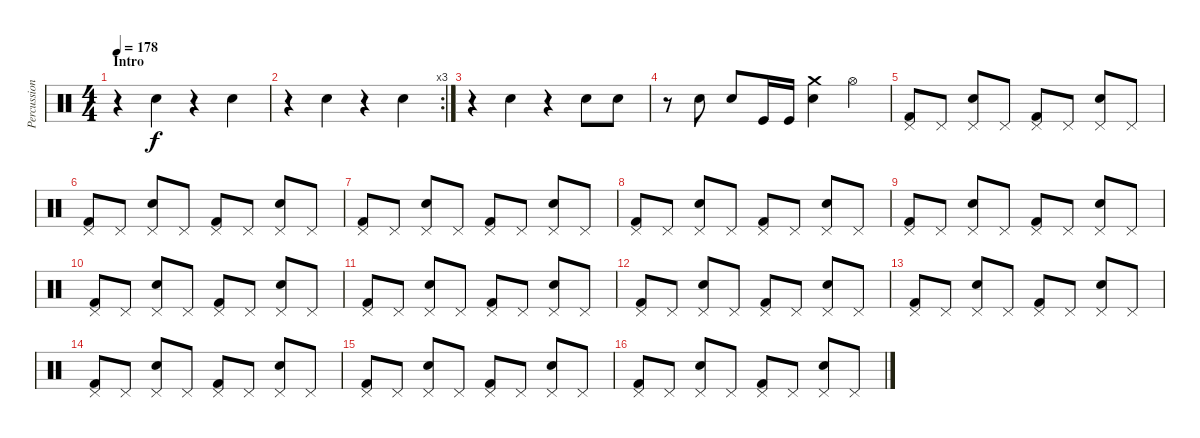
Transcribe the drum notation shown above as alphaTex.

\track ("Percussion" "Percussion") {instrument percussion}
\staff {score}
\articulation defaults
\ts (4 4)
\section ("" "Intro")
\tempo 178
\clef neutral
\ks c
r.4{dy f} "Snare (hit) 2".4 r.4 "Snare (hit) 2".4 |
\rc 3
r.4 "Snare (hit) 2".4 r.4 "Snare (hit) 2".4 |
r.4 "Snare (hit) 2".4 r.4 "Snare (hit) 2".8 "Snare (hit) 2".8 |
r.8 "Snare (hit) 2".8 "Snare (hit) 2".8 "Kick (hit)".16 "Kick (hit)".16 ("Crash medium (hit)" "Snare (hit) 2").4 "Hi-Hat (open)".4 |
("Pedal Hi-Hat (hit)" "Kick (hit) 2").8 "Pedal Hi-Hat (hit)".8 ("Pedal Hi-Hat (hit)" "Snare (hit) 2").8 "Pedal Hi-Hat (hit)".8 ("Pedal Hi-Hat (hit)" "Kick (hit) 2").8 "Pedal Hi-Hat (hit)".8 ("Pedal Hi-Hat (hit)" "Snare (hit) 2").8 "Pedal Hi-Hat (hit)".8 |
("Pedal Hi-Hat (hit)" "Kick (hit) 2").8 "Pedal Hi-Hat (hit)".8 ("Pedal Hi-Hat (hit)" "Snare (hit) 2").8 "Pedal Hi-Hat (hit)".8 ("Pedal Hi-Hat (hit)" "Kick (hit) 2").8 "Pedal Hi-Hat (hit)".8 ("Pedal Hi-Hat (hit)" "Snare (hit) 2").8 "Pedal Hi-Hat (hit)".8 |
("Pedal Hi-Hat (hit)" "Kick (hit) 2").8 "Pedal Hi-Hat (hit)".8 ("Pedal Hi-Hat (hit)" "Snare (hit) 2").8 "Pedal Hi-Hat (hit)".8 ("Pedal Hi-Hat (hit)" "Kick (hit) 2").8 "Pedal Hi-Hat (hit)".8 ("Pedal Hi-Hat (hit)" "Snare (hit) 2").8 "Pedal Hi-Hat (hit)".8 |
("Pedal Hi-Hat (hit)" "Kick (hit) 2").8 "Pedal Hi-Hat (hit)".8 ("Pedal Hi-Hat (hit)" "Snare (hit) 2").8 "Pedal Hi-Hat (hit)".8 ("Pedal Hi-Hat (hit)" "Kick (hit) 2").8 "Pedal Hi-Hat (hit)".8 ("Pedal Hi-Hat (hit)" "Snare (hit) 2").8 "Pedal Hi-Hat (hit)".8 |
("Pedal Hi-Hat (hit)" "Kick (hit) 2").8 "Pedal Hi-Hat (hit)".8 ("Pedal Hi-Hat (hit)" "Snare (hit) 2").8 "Pedal Hi-Hat (hit)".8 ("Pedal Hi-Hat (hit)" "Kick (hit) 2").8 "Pedal Hi-Hat (hit)".8 ("Pedal Hi-Hat (hit)" "Snare (hit) 2").8 "Pedal Hi-Hat (hit)".8 |
("Pedal Hi-Hat (hit)" "Kick (hit) 2").8 "Pedal Hi-Hat (hit)".8 ("Pedal Hi-Hat (hit)" "Snare (hit) 2").8 "Pedal Hi-Hat (hit)".8 ("Pedal Hi-Hat (hit)" "Kick (hit) 2").8 "Pedal Hi-Hat (hit)".8 ("Pedal Hi-Hat (hit)" "Snare (hit) 2").8 "Pedal Hi-Hat (hit)".8 |
("Pedal Hi-Hat (hit)" "Kick (hit) 2").8 "Pedal Hi-Hat (hit)".8 ("Pedal Hi-Hat (hit)" "Snare (hit) 2").8 "Pedal Hi-Hat (hit)".8 ("Pedal Hi-Hat (hit)" "Kick (hit) 2").8 "Pedal Hi-Hat (hit)".8 ("Pedal Hi-Hat (hit)" "Snare (hit) 2").8 "Pedal Hi-Hat (hit)".8 |
("Pedal Hi-Hat (hit)" "Kick (hit) 2").8 "Pedal Hi-Hat (hit)".8 ("Pedal Hi-Hat (hit)" "Snare (hit) 2").8 "Pedal Hi-Hat (hit)".8 ("Pedal Hi-Hat (hit)" "Kick (hit) 2").8 "Pedal Hi-Hat (hit)".8 ("Pedal Hi-Hat (hit)" "Snare (hit) 2").8 "Pedal Hi-Hat (hit)".8 |
("Pedal Hi-Hat (hit)" "Kick (hit) 2").8 "Pedal Hi-Hat (hit)".8 ("Pedal Hi-Hat (hit)" "Snare (hit) 2").8 "Pedal Hi-Hat (hit)".8 ("Pedal Hi-Hat (hit)" "Kick (hit) 2").8 "Pedal Hi-Hat (hit)".8 ("Pedal Hi-Hat (hit)" "Snare (hit) 2").8 "Pedal Hi-Hat (hit)".8 |
("Pedal Hi-Hat (hit)" "Kick (hit) 2").8 "Pedal Hi-Hat (hit)".8 ("Pedal Hi-Hat (hit)" "Snare (hit) 2").8 "Pedal Hi-Hat (hit)".8 ("Pedal Hi-Hat (hit)" "Kick (hit) 2").8 "Pedal Hi-Hat (hit)".8 ("Pedal Hi-Hat (hit)" "Snare (hit) 2").8 "Pedal Hi-Hat (hit)".8 |
("Pedal Hi-Hat (hit)" "Kick (hit) 2").8 "Pedal Hi-Hat (hit)".8 ("Pedal Hi-Hat (hit)" "Snare (hit) 2").8 "Pedal Hi-Hat (hit)".8 ("Pedal Hi-Hat (hit)" "Kick (hit) 2").8 "Pedal Hi-Hat (hit)".8 ("Pedal Hi-Hat (hit)" "Snare (hit) 2").8 "Pedal Hi-Hat (hit)".8 |
("Pedal Hi-Hat (hit)" "Kick (hit) 2").8 "Pedal Hi-Hat (hit)".8 ("Pedal Hi-Hat (hit)" "Snare (hit) 2").8 "Pedal Hi-Hat (hit)".8 ("Pedal Hi-Hat (hit)" "Kick (hit) 2").8 "Pedal Hi-Hat (hit)".8 ("Pedal Hi-Hat (hit)" "Snare (hit) 2").8 "Pedal Hi-Hat (hit)".8
